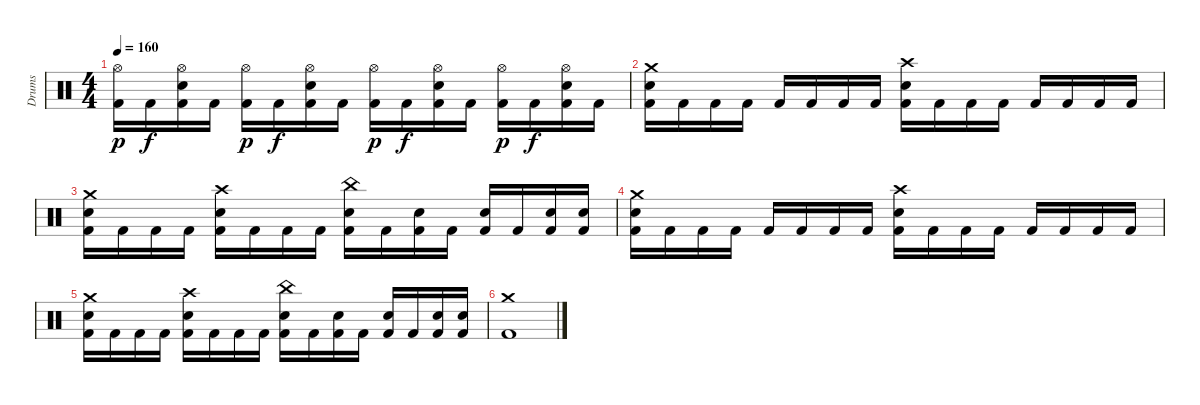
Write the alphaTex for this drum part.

\track ("Drums" "Drums") {instrument percussion}
\staff {score}
\articulation defaults
\ts (4 4)
\tempo 160
\clef neutral
\ks c
("Hi-Hat (open)" "Kick (hit) 2").16{dy p} "Kick (hit) 2".16{dy f} ("Hi-Hat (open)" "Electric Snare (hit)" "Kick (hit) 2").16 "Kick (hit) 2".16 ("Hi-Hat (open)" "Kick (hit) 2").16{dy p} "Kick (hit) 2".16{dy f} ("Hi-Hat (open)" "Electric Snare (hit)" "Kick (hit) 2").16 "Kick (hit) 2".16 ("Hi-Hat (open)" "Kick (hit) 2").16{dy p} "Kick (hit) 2".16{dy f} ("Hi-Hat (open)" "Electric Snare (hit)" "Kick (hit) 2").16 "Kick (hit) 2".16 ("Hi-Hat (open)" "Kick (hit) 2").16{dy p} "Kick (hit) 2".16{dy f} ("Hi-Hat (open)" "Electric Snare (hit)" "Kick (hit) 2").16 "Kick (hit) 2".16 |
("Crash medium (hit)" "Electric Snare (hit)" "Kick (hit) 2").16 "Kick (hit) 2".16 "Kick (hit) 2".16 "Kick (hit) 2".16 "Kick (hit) 2".16 "Kick (hit) 2".16 "Kick (hit) 2".16 "Kick (hit) 2".16 ("Crash high (hit)" "Electric Snare (hit)" "Kick (hit) 2").16 "Kick (hit) 2".16 "Kick (hit) 2".16 "Kick (hit) 2".16 "Kick (hit) 2".16 "Kick (hit) 2".16 "Kick (hit) 2".16 "Kick (hit) 2".16 |
("Crash medium (hit)" "Electric Snare (hit)" "Kick (hit) 2").16 "Kick (hit) 2".16 "Kick (hit) 2".16 "Kick (hit) 2".16 ("Crash high (hit)" "Electric Snare (hit)" "Kick (hit) 2").16 "Kick (hit) 2".16 "Kick (hit) 2".16 "Kick (hit) 2".16 ("China (hit)" "Electric Snare (hit)" "Kick (hit) 2").16 "Kick (hit) 2".16 ("Electric Snare (hit)" "Kick (hit) 2").16 "Kick (hit) 2".16 ("Electric Snare (hit)" "Kick (hit) 2").16 "Kick (hit) 2".16 ("Electric Snare (hit)" "Kick (hit) 2").16 ("Electric Snare (hit)" "Kick (hit) 2").16 |
("Crash medium (hit)" "Electric Snare (hit)" "Kick (hit) 2").16 "Kick (hit) 2".16 "Kick (hit) 2".16 "Kick (hit) 2".16 "Kick (hit) 2".16 "Kick (hit) 2".16 "Kick (hit) 2".16 "Kick (hit) 2".16 ("Crash high (hit)" "Electric Snare (hit)" "Kick (hit) 2").16 "Kick (hit) 2".16 "Kick (hit) 2".16 "Kick (hit) 2".16 "Kick (hit) 2".16 "Kick (hit) 2".16 "Kick (hit) 2".16 "Kick (hit) 2".16 |
("Crash medium (hit)" "Electric Snare (hit)" "Kick (hit) 2").16 "Kick (hit) 2".16 "Kick (hit) 2".16 "Kick (hit) 2".16 ("Crash high (hit)" "Electric Snare (hit)" "Kick (hit) 2").16 "Kick (hit) 2".16 "Kick (hit) 2".16 "Kick (hit) 2".16 ("China (hit)" "Electric Snare (hit)" "Kick (hit) 2").16 "Kick (hit) 2".16 ("Electric Snare (hit)" "Kick (hit) 2").16 "Kick (hit) 2".16 ("Electric Snare (hit)" "Kick (hit) 2").16 "Kick (hit) 2".16 ("Electric Snare (hit)" "Kick (hit) 2").16 ("Electric Snare (hit)" "Kick (hit) 2").16 |
("Crash medium (hit)" "Kick (hit) 2").1
